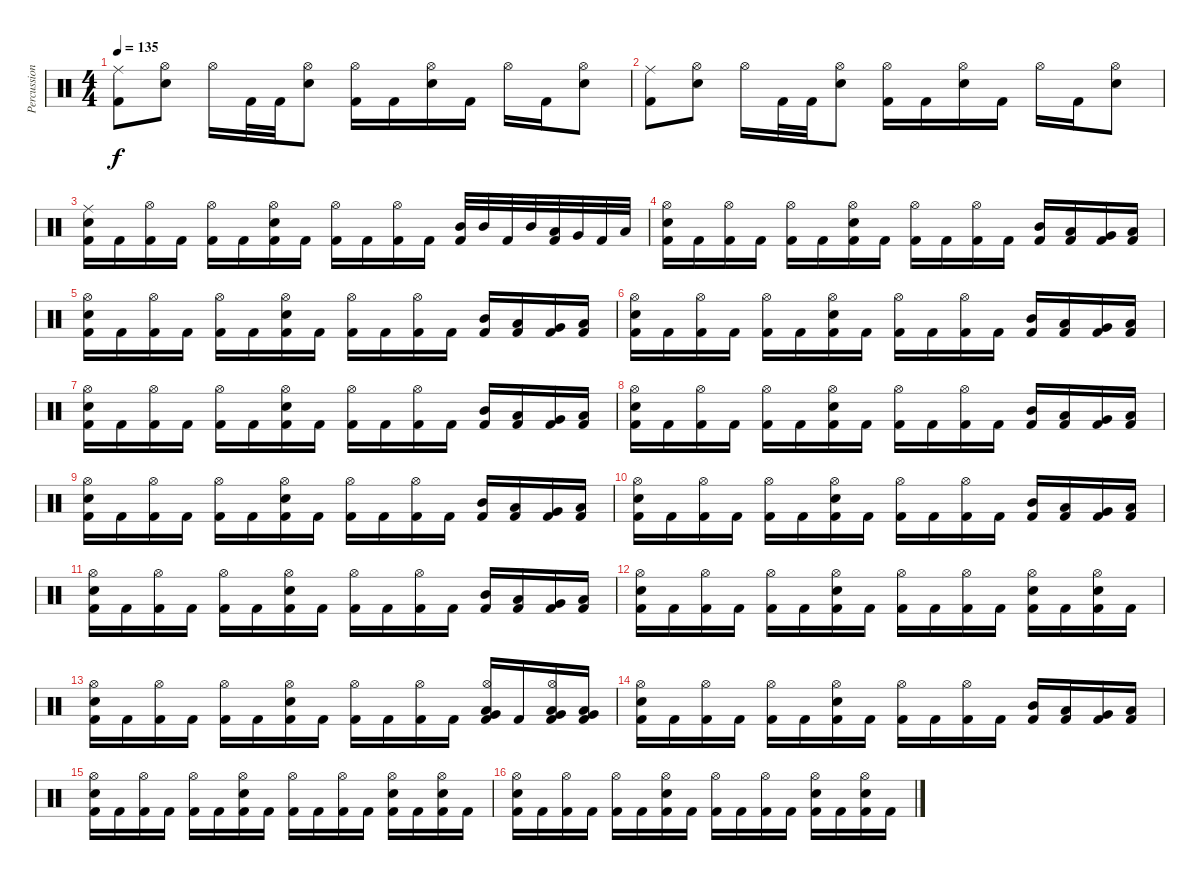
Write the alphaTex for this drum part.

\track ("Percussion" "Percussion") {instrument percussion}
\staff {score}
\articulation defaults
\ts (4 4)
\tempo 135
\clef neutral
\ks c
("Kick (hit) 2" "Ride (middle)").8{dy f} ("Electric Snare (hit)" "Hi-Hat (open)").8 "Hi-Hat (open)".16 "Kick (hit) 2".32 "Kick (hit) 2".32 ("Electric Snare (hit)" "Hi-Hat (open)").8 ("Kick (hit) 2" "Hi-Hat (open)").16 "Kick (hit) 2".16 ("Electric Snare (hit)" "Hi-Hat (open)").16 "Kick (hit) 2".16 "Hi-Hat (open)".16 "Kick (hit) 2".16 ("Electric Snare (hit)" "Hi-Hat (open)").8 |
("Kick (hit) 2" "Ride (middle)").8 ("Electric Snare (hit)" "Hi-Hat (open)").8 "Hi-Hat (open)".16 "Kick (hit) 2".32 "Kick (hit) 2".32 ("Electric Snare (hit)" "Hi-Hat (open)").8 ("Kick (hit) 2" "Hi-Hat (open)").16 "Kick (hit) 2".16 ("Electric Snare (hit)" "Hi-Hat (open)").16 "Kick (hit) 2".16 "Hi-Hat (open)".16 "Kick (hit) 2".16 ("Electric Snare (hit)" "Hi-Hat (open)").8 |
("Kick (hit) 2" "Electric Snare (hit)" "Ride (middle)").16 "Kick (hit) 2".16 ("Kick (hit) 2" "Hi-Hat (open)").16 "Kick (hit) 2".16 ("Kick (hit) 2" "Hi-Hat (open)").16 "Kick (hit) 2".16 ("Kick (hit) 2" "Electric Snare (hit)" "Hi-Hat (open)").16 "Kick (hit) 2".16 ("Kick (hit) 2" "Hi-Hat (open)").16 "Kick (hit) 2".16 ("Kick (hit) 2" "Hi-Hat (open)").16 "Kick (hit) 2".16 ("Kick (hit) 2" "Mid Tom (hit)").32 "Mid Tom (hit)".32 "Kick (hit) 2".32 "Mid Tom (hit)".32 ("Kick (hit) 2" "Low Tom (hit)").32 "Very Low Tom (hit)".32 "Kick (hit) 2".32 "Low Floor Tom (hit)".32 |
("Kick (hit) 2" "Electric Snare (hit)" "Hi-Hat (open)").16 "Kick (hit) 2".16 ("Kick (hit) 2" "Hi-Hat (open)").16 "Kick (hit) 2".16 ("Kick (hit) 2" "Hi-Hat (open)").16 "Kick (hit) 2".16 ("Kick (hit) 2" "Electric Snare (hit)" "Hi-Hat (open)").16 "Kick (hit) 2".16 ("Kick (hit) 2" "Hi-Hat (open)").16 "Kick (hit) 2".16 ("Kick (hit) 2" "Hi-Hat (open)").16 "Kick (hit) 2".16 ("Kick (hit) 2" "Mid Tom (hit)").16 ("Kick (hit) 2" "Low Tom (hit)").16 ("Kick (hit) 2" "Very Low Tom (hit)").16 ("Kick (hit) 2" "Low Floor Tom (hit)").16 |
("Kick (hit) 2" "Electric Snare (hit)" "Hi-Hat (open)").16 "Kick (hit) 2".16 ("Kick (hit) 2" "Hi-Hat (open)").16 "Kick (hit) 2".16 ("Kick (hit) 2" "Hi-Hat (open)").16 "Kick (hit) 2".16 ("Kick (hit) 2" "Electric Snare (hit)" "Hi-Hat (open)").16 "Kick (hit) 2".16 ("Kick (hit) 2" "Hi-Hat (open)").16 "Kick (hit) 2".16 ("Kick (hit) 2" "Hi-Hat (open)").16 "Kick (hit) 2".16 ("Kick (hit) 2" "Mid Tom (hit)").16 ("Kick (hit) 2" "Low Tom (hit)").16 ("Kick (hit) 2" "Very Low Tom (hit)").16 ("Kick (hit) 2" "Low Floor Tom (hit)").16 |
("Kick (hit) 2" "Electric Snare (hit)" "Hi-Hat (open)").16 "Kick (hit) 2".16 ("Kick (hit) 2" "Hi-Hat (open)").16 "Kick (hit) 2".16 ("Kick (hit) 2" "Hi-Hat (open)").16 "Kick (hit) 2".16 ("Kick (hit) 2" "Electric Snare (hit)" "Hi-Hat (open)").16 "Kick (hit) 2".16 ("Kick (hit) 2" "Hi-Hat (open)").16 "Kick (hit) 2".16 ("Kick (hit) 2" "Hi-Hat (open)").16 "Kick (hit) 2".16 ("Kick (hit) 2" "Mid Tom (hit)").16 ("Kick (hit) 2" "Low Tom (hit)").16 ("Kick (hit) 2" "Very Low Tom (hit)").16 ("Kick (hit) 2" "Low Floor Tom (hit)").16 |
("Kick (hit) 2" "Electric Snare (hit)" "Hi-Hat (open)").16 "Kick (hit) 2".16 ("Kick (hit) 2" "Hi-Hat (open)").16 "Kick (hit) 2".16 ("Kick (hit) 2" "Hi-Hat (open)").16 "Kick (hit) 2".16 ("Kick (hit) 2" "Electric Snare (hit)" "Hi-Hat (open)").16 "Kick (hit) 2".16 ("Kick (hit) 2" "Hi-Hat (open)").16 "Kick (hit) 2".16 ("Kick (hit) 2" "Hi-Hat (open)").16 "Kick (hit) 2".16 ("Kick (hit) 2" "Mid Tom (hit)").16 ("Kick (hit) 2" "Low Tom (hit)").16 ("Kick (hit) 2" "Very Low Tom (hit)").16 ("Kick (hit) 2" "Low Floor Tom (hit)").16 |
("Kick (hit) 2" "Electric Snare (hit)" "Hi-Hat (open)").16 "Kick (hit) 2".16 ("Kick (hit) 2" "Hi-Hat (open)").16 "Kick (hit) 2".16 ("Kick (hit) 2" "Hi-Hat (open)").16 "Kick (hit) 2".16 ("Kick (hit) 2" "Electric Snare (hit)" "Hi-Hat (open)").16 "Kick (hit) 2".16 ("Kick (hit) 2" "Hi-Hat (open)").16 "Kick (hit) 2".16 ("Kick (hit) 2" "Hi-Hat (open)").16 "Kick (hit) 2".16 ("Kick (hit) 2" "Mid Tom (hit)").16 ("Kick (hit) 2" "Low Tom (hit)").16 ("Kick (hit) 2" "Very Low Tom (hit)").16 ("Kick (hit) 2" "Low Floor Tom (hit)").16 |
("Kick (hit) 2" "Electric Snare (hit)" "Hi-Hat (open)").16 "Kick (hit) 2".16 ("Kick (hit) 2" "Hi-Hat (open)").16 "Kick (hit) 2".16 ("Kick (hit) 2" "Hi-Hat (open)").16 "Kick (hit) 2".16 ("Kick (hit) 2" "Electric Snare (hit)" "Hi-Hat (open)").16 "Kick (hit) 2".16 ("Kick (hit) 2" "Hi-Hat (open)").16 "Kick (hit) 2".16 ("Kick (hit) 2" "Hi-Hat (open)").16 "Kick (hit) 2".16 ("Kick (hit) 2" "Mid Tom (hit)").16 ("Kick (hit) 2" "Low Tom (hit)").16 ("Kick (hit) 2" "Very Low Tom (hit)").16 ("Kick (hit) 2" "Low Floor Tom (hit)").16 |
("Kick (hit) 2" "Electric Snare (hit)" "Hi-Hat (open)").16 "Kick (hit) 2".16 ("Kick (hit) 2" "Hi-Hat (open)").16 "Kick (hit) 2".16 ("Kick (hit) 2" "Hi-Hat (open)").16 "Kick (hit) 2".16 ("Kick (hit) 2" "Electric Snare (hit)" "Hi-Hat (open)").16 "Kick (hit) 2".16 ("Kick (hit) 2" "Hi-Hat (open)").16 "Kick (hit) 2".16 ("Kick (hit) 2" "Hi-Hat (open)").16 "Kick (hit) 2".16 ("Kick (hit) 2" "Mid Tom (hit)").16 ("Kick (hit) 2" "Low Tom (hit)").16 ("Kick (hit) 2" "Very Low Tom (hit)").16 ("Kick (hit) 2" "Low Floor Tom (hit)").16 |
("Kick (hit) 2" "Electric Snare (hit)" "Hi-Hat (open)").16 "Kick (hit) 2".16 ("Kick (hit) 2" "Hi-Hat (open)").16 "Kick (hit) 2".16 ("Kick (hit) 2" "Hi-Hat (open)").16 "Kick (hit) 2".16 ("Kick (hit) 2" "Electric Snare (hit)" "Hi-Hat (open)").16 "Kick (hit) 2".16 ("Kick (hit) 2" "Hi-Hat (open)").16 "Kick (hit) 2".16 ("Kick (hit) 2" "Hi-Hat (open)").16 "Kick (hit) 2".16 ("Kick (hit) 2" "Mid Tom (hit)").16 ("Kick (hit) 2" "Low Tom (hit)").16 ("Kick (hit) 2" "Very Low Tom (hit)").16 ("Kick (hit) 2" "Low Floor Tom (hit)").16 |
("Kick (hit) 2" "Electric Snare (hit)" "Hi-Hat (open)").16 "Kick (hit) 2".16 ("Kick (hit) 2" "Hi-Hat (open)").16 "Kick (hit) 2".16 ("Kick (hit) 2" "Hi-Hat (open)").16 "Kick (hit) 2".16 ("Kick (hit) 2" "Electric Snare (hit)" "Hi-Hat (open)").16 "Kick (hit) 2".16 ("Kick (hit) 2" "Hi-Hat (open)").16 "Kick (hit) 2".16 ("Kick (hit) 2" "Hi-Hat (open)").16 "Kick (hit) 2".16 ("Kick (hit) 2" "Electric Snare (hit)" "Hi-Hat (open)").16 "Kick (hit) 2".16 ("Kick (hit) 2" "Electric Snare (hit)" "Hi-Hat (open)").16 "Kick (hit) 2".16 |
("Kick (hit) 2" "Electric Snare (hit)" "Hi-Hat (open)").16 "Kick (hit) 2".16 ("Kick (hit) 2" "Hi-Hat (open)").16 "Kick (hit) 2".16 ("Kick (hit) 2" "Hi-Hat (open)").16 "Kick (hit) 2".16 ("Kick (hit) 2" "Electric Snare (hit)" "Hi-Hat (open)").16 "Kick (hit) 2".16 ("Kick (hit) 2" "Hi-Hat (open)").16 "Kick (hit) 2".16 ("Kick (hit) 2" "Hi-Hat (open)").16 "Kick (hit) 2".16 ("Kick (hit) 2" "Low Floor Tom (hit)" "Very Low Tom (hit)" "Hi-Hat (open)").16 "Kick (hit) 2".16 ("Kick (hit) 2" "Low Floor Tom (hit)" "Very Low Tom (hit)" "Hi-Hat (open)").16 ("Kick (hit) 2" "Low Floor Tom (hit)" "Very Low Tom (hit)").16 |
("Kick (hit) 2" "Electric Snare (hit)" "Hi-Hat (open)").16 "Kick (hit) 2".16 ("Kick (hit) 2" "Hi-Hat (open)").16 "Kick (hit) 2".16 ("Kick (hit) 2" "Hi-Hat (open)").16 "Kick (hit) 2".16 ("Kick (hit) 2" "Electric Snare (hit)" "Hi-Hat (open)").16 "Kick (hit) 2".16 ("Kick (hit) 2" "Hi-Hat (open)").16 "Kick (hit) 2".16 ("Kick (hit) 2" "Hi-Hat (open)").16 "Kick (hit) 2".16 ("Kick (hit) 2" "Mid Tom (hit)").16 ("Kick (hit) 2" "Low Tom (hit)").16 ("Kick (hit) 2" "Very Low Tom (hit)").16 ("Kick (hit) 2" "Low Floor Tom (hit)").16 |
("Kick (hit) 2" "Electric Snare (hit)" "Hi-Hat (open)").16 "Kick (hit) 2".16 ("Kick (hit) 2" "Hi-Hat (open)").16 "Kick (hit) 2".16 ("Kick (hit) 2" "Hi-Hat (open)").16 "Kick (hit) 2".16 ("Kick (hit) 2" "Electric Snare (hit)" "Hi-Hat (open)").16 "Kick (hit) 2".16 ("Kick (hit) 2" "Hi-Hat (open)").16 "Kick (hit) 2".16 ("Kick (hit) 2" "Hi-Hat (open)").16 "Kick (hit) 2".16 ("Kick (hit) 2" "Electric Snare (hit)" "Hi-Hat (open)").16 "Kick (hit) 2".16 ("Kick (hit) 2" "Electric Snare (hit)" "Hi-Hat (open)").16 "Kick (hit) 2".16 |
("Kick (hit) 2" "Electric Snare (hit)" "Hi-Hat (open)").16 "Kick (hit) 2".16 ("Kick (hit) 2" "Hi-Hat (open)").16 "Kick (hit) 2".16 ("Kick (hit) 2" "Hi-Hat (open)").16 "Kick (hit) 2".16 ("Kick (hit) 2" "Electric Snare (hit)" "Hi-Hat (open)").16 "Kick (hit) 2".16 ("Kick (hit) 2" "Hi-Hat (open)").16 "Kick (hit) 2".16 ("Kick (hit) 2" "Hi-Hat (open)").16 "Kick (hit) 2".16 ("Kick (hit) 2" "Electric Snare (hit)" "Hi-Hat (open)").16 "Kick (hit) 2".16 ("Kick (hit) 2" "Electric Snare (hit)" "Hi-Hat (open)").16 "Kick (hit) 2".16
